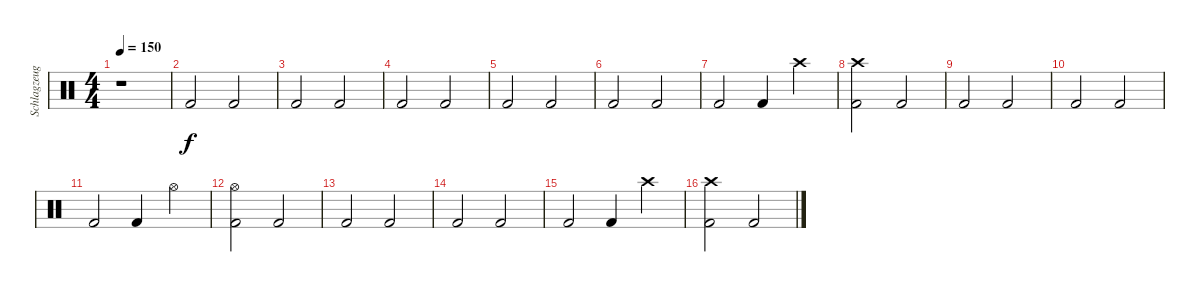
\track ("Schlagzeug" "Schlagzeug") {instrument percussion}
\staff {score}
\articulation defaults
\ts (4 4)
\tempo 150
\clef neutral
\ks c
r.1{dy f} |
"Kick (hit) 2".2 "Kick (hit) 2".2 |
"Kick (hit) 2".2 "Kick (hit) 2".2 |
"Kick (hit) 2".2 "Kick (hit) 2".2 |
"Kick (hit) 2".2 "Kick (hit) 2".2 |
"Kick (hit) 2".2 "Kick (hit) 2".2 |
"Kick (hit) 2".2 "Kick (hit) 2".4 "Crash high (hit)".4 |
("Crash high (hit)" "Kick (hit) 2").2 "Kick (hit) 2".2 |
"Kick (hit) 2".2 "Kick (hit) 2".2 |
"Kick (hit) 2".2 "Kick (hit) 2".2 |
"Kick (hit) 2".2 "Kick (hit) 2".4 "Hi-Hat (open)".4 |
("Hi-Hat (open)" "Kick (hit) 2").2 "Kick (hit) 2".2 |
"Kick (hit) 2".2 "Kick (hit) 2".2 |
"Kick (hit) 2".2 "Kick (hit) 2".2 |
"Kick (hit) 2".2 "Kick (hit) 2".4 "Crash high (hit)".4 |
("Crash high (hit)" "Kick (hit) 2").2 "Kick (hit) 2".2
